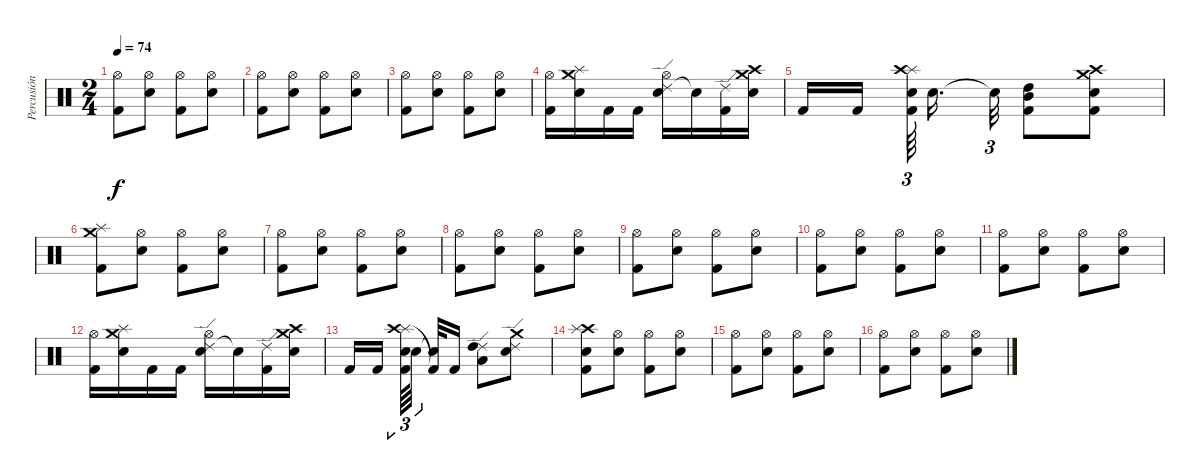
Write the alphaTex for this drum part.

\track ("Percusión" "Percusión") {instrument percussion}
\staff {score}
\articulation defaults
\ts (2 4)
\tempo 74
\clef neutral
\ks c
("Hi-Hat (open)" "Kick (hit) 2").8{dy f} ("Hi-Hat (open)" "Electric Snare (hit)").8 ("Hi-Hat (open)" "Kick (hit) 2").8 ("Hi-Hat (open)" "Electric Snare (hit)").8 |
("Hi-Hat (open)" "Kick (hit) 2").8 ("Hi-Hat (open)" "Electric Snare (hit)").8 ("Hi-Hat (open)" "Kick (hit) 2").8 ("Hi-Hat (open)" "Electric Snare (hit)").8 |
("Hi-Hat (open)" "Kick (hit) 2").8 ("Hi-Hat (open)" "Electric Snare (hit)").8 ("Hi-Hat (open)" "Kick (hit) 2").8 ("Hi-Hat (open)" "Electric Snare (hit)").8 |
("Hi-Hat (open)" "Kick (hit) 2").16 ("Crash medium (hit)" "Splash (hit)" "Electric Snare (hit)").16 "Kick (hit) 2".16 "Kick (hit) 2".16 ("Ride (edge) 2" "Hi-Hat (open)" "Electric Snare (hit)").16 "Snare (hit)"{t}.16 ("Ride (edge) 2" "Kick (hit) 2").16 ("Crash medium (hit)" "Crash high (hit)" "Electric Snare (hit)").16 |
"Kick (hit) 2".16 "Kick (hit) 2".16{beam splitsecondary} ("Splash (hit)" "Crash high (hit)" "Electric Snare (hit)" "Kick (hit) 2").64{tu (3 2) beam splitsecondary} "Electric Snare (hit)".16{d} "Electric Snare (hit)"{t}.32{tu (3 2)} ("Mid Tom (hit)" "High Tom (hit)" "Kick (hit) 2").8 ("Crash high (hit)" "Crash medium (hit)" "Electric Snare (hit)" "Kick (hit) 2").8 |
("Crash medium (hit)" "Splash (hit)" "Kick (hit) 2").8 ("Hi-Hat (open)" "Electric Snare (hit)").8 ("Hi-Hat (open)" "Kick (hit) 2").8 ("Hi-Hat (open)" "Electric Snare (hit)").8 |
("Hi-Hat (open)" "Kick (hit) 2").8 ("Hi-Hat (open)" "Electric Snare (hit)").8 ("Hi-Hat (open)" "Kick (hit) 2").8 ("Hi-Hat (open)" "Electric Snare (hit)").8 |
("Hi-Hat (open)" "Kick (hit) 2").8 ("Hi-Hat (open)" "Electric Snare (hit)").8 ("Hi-Hat (open)" "Kick (hit) 2").8 ("Hi-Hat (open)" "Electric Snare (hit)").8 |
("Hi-Hat (open)" "Kick (hit) 2").8 ("Hi-Hat (open)" "Electric Snare (hit)").8 ("Hi-Hat (open)" "Kick (hit) 2").8 ("Hi-Hat (open)" "Electric Snare (hit)").8 |
("Hi-Hat (open)" "Kick (hit) 2").8 ("Hi-Hat (open)" "Electric Snare (hit)").8 ("Hi-Hat (open)" "Kick (hit) 2").8 ("Hi-Hat (open)" "Electric Snare (hit)").8 |
("Hi-Hat (open)" "Kick (hit) 2").8 ("Hi-Hat (open)" "Electric Snare (hit)").8 ("Hi-Hat (open)" "Kick (hit) 2").8 ("Hi-Hat (open)" "Electric Snare (hit)").8 |
("Hi-Hat (open)" "Kick (hit) 2").16 ("Crash medium (hit)" "Splash (hit)" "Electric Snare (hit)").16 "Kick (hit) 2".16 "Kick (hit) 2".16 ("Ride (edge) 2" "Hi-Hat (open)" "Electric Snare (hit)").16 "Snare (hit)"{t}.16 ("Ride (edge) 2" "Kick (hit) 2").16 ("Crash medium (hit)" "Crash high (hit)" "Electric Snare (hit)").16 |
"Kick (hit) 2".16 "Kick (hit) 2".16{beam splitsecondary} ("Splash (hit)" "Crash high (hit)" "Electric Snare (hit)" "Kick (hit) 2").64{tu (3 2)} "Electric Snare (hit)".32{tu (3 2) beam splitsecondary} ("Electric Snare (hit)"{t} "Kick (hit) 2"{t}).32 "Kick (hit) 2".16 ("Ride (edge) 2" "Low Tom (hit)" "High Tom (hit)").8 ("Ride (edge) 2" "Crash medium (hit)" "Electric Snare (hit)").8 |
("Crash high (hit)" "Splash (hit)" "Electric Snare (hit)" "Kick (hit) 2").8 ("Hi-Hat (open)" "Electric Snare (hit)").8 ("Hi-Hat (open)" "Kick (hit) 2").8 ("Hi-Hat (open)" "Electric Snare (hit)").8 |
("Hi-Hat (open)" "Kick (hit) 2").8 ("Hi-Hat (open)" "Electric Snare (hit)").8 ("Hi-Hat (open)" "Kick (hit) 2").8 ("Hi-Hat (open)" "Electric Snare (hit)").8 |
("Hi-Hat (open)" "Kick (hit) 2").8 ("Hi-Hat (open)" "Electric Snare (hit)").8 ("Hi-Hat (open)" "Kick (hit) 2").8 ("Hi-Hat (open)" "Electric Snare (hit)").8
